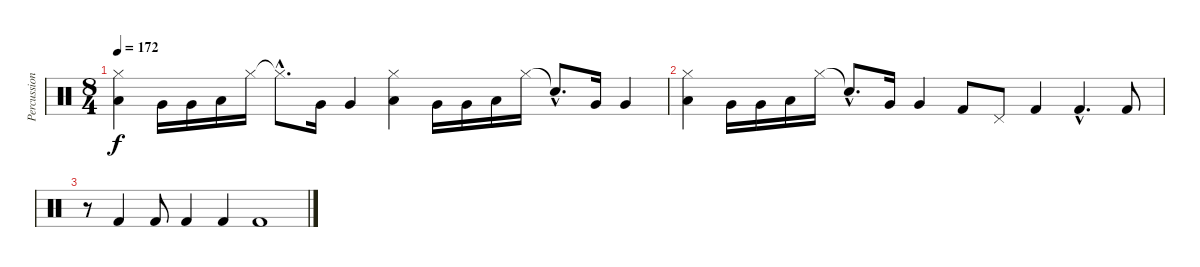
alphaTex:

\track ("Percussion" "Percussion") {instrument percussion}
\staff {score}
\articulation defaults
\ts (8 4)
\tempo 172
\clef neutral
\ks c
("Hi-Hat (closed)" "Low Floor Tom (hit)").4{dy f} "Very Low Tom (hit)".16 "Very Low Tom (hit)".16 "Low Floor Tom (hit)".16 "Hi-Hat (closed)".16 "Hi-Hat (closed)"{hac t}.8{d} "Very Low Tom (hit)".16 "Very Low Tom (hit)".4 ("Hi-Hat (closed)" "Low Floor Tom (hit)").4 "Very Low Tom (hit)".16 "Very Low Tom (hit)".16 "Low Floor Tom (hit)".16 "Hi-Hat (closed)".16 "Snare (hit)"{hac t}.8{d} "Very Low Tom (hit)".16 "Very Low Tom (hit)".4 |
("Hi-Hat (closed)" "Low Floor Tom (hit)").4 "Very Low Tom (hit)".16 "Very Low Tom (hit)".16 "Low Floor Tom (hit)".16 "Hi-Hat (closed)".16 "Snare (hit)"{hac t}.8{d} "Very Low Tom (hit)".16 "Very Low Tom (hit)".4 "Kick (hit) 2".8 "Pedal Hi-Hat (hit)".8 "Kick (hit) 2".4 "Kick (hit) 2"{hac}.4{d} "Kick (hit) 2".8 |
r.8 "Kick (hit) 2".4 "Kick (hit) 2".8 "Kick (hit) 2".4 "Kick (hit) 2".4 "Kick (hit) 2".1
